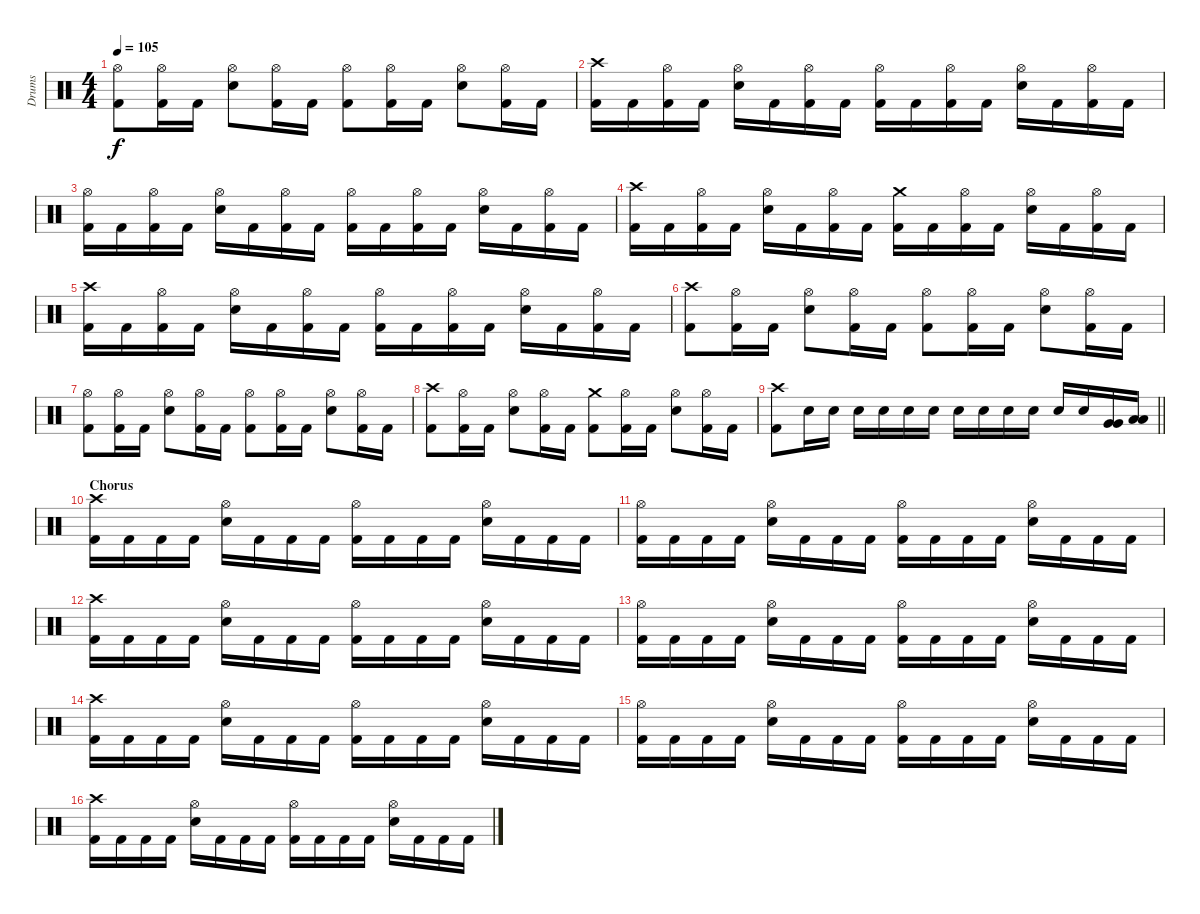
\track ("Drums" "Drums") {instrument percussion}
\staff {score}
\articulation defaults
\ts (4 4)
\tempo 105
\clef neutral
\ks c
("Hi-Hat (open)" "Kick (hit) 2").8{dy f} ("Hi-Hat (open)" "Kick (hit) 2").16 "Kick (hit) 2".16 ("Hi-Hat (open)" "Electric Snare (hit)").8 ("Hi-Hat (open)" "Kick (hit) 2").16 "Kick (hit) 2".16 ("Hi-Hat (open)" "Kick (hit) 2").8 ("Hi-Hat (open)" "Kick (hit) 2").16 "Kick (hit) 2".16 ("Hi-Hat (open)" "Electric Snare (hit)").8 ("Hi-Hat (open)" "Kick (hit) 2").16 "Kick (hit) 2".16 |
("Crash high (hit)" "Kick (hit) 2").16 "Kick (hit) 2".16 ("Hi-Hat (open)" "Kick (hit) 2").16 "Kick (hit) 2".16 ("Hi-Hat (open)" "Electric Snare (hit)").16 "Kick (hit) 2".16 ("Hi-Hat (open)" "Kick (hit) 2").16 "Kick (hit) 2".16 ("Hi-Hat (open)" "Kick (hit) 2").16 "Kick (hit) 2".16 ("Hi-Hat (open)" "Kick (hit) 2").16 "Kick (hit) 2".16 ("Hi-Hat (open)" "Electric Snare (hit)").16 "Kick (hit) 2".16 ("Hi-Hat (open)" "Kick (hit) 2").16 "Kick (hit) 2".16 |
("Hi-Hat (open)" "Kick (hit) 2").16 "Kick (hit) 2".16 ("Hi-Hat (open)" "Kick (hit) 2").16 "Kick (hit) 2".16 ("Hi-Hat (open)" "Electric Snare (hit)").16 "Kick (hit) 2".16 ("Hi-Hat (open)" "Kick (hit) 2").16 "Kick (hit) 2".16 ("Hi-Hat (open)" "Kick (hit) 2").16 "Kick (hit) 2".16 ("Hi-Hat (open)" "Kick (hit) 2").16 "Kick (hit) 2".16 ("Hi-Hat (open)" "Electric Snare (hit)").16 "Kick (hit) 2".16 ("Hi-Hat (open)" "Kick (hit) 2").16 "Kick (hit) 2".16 |
("Crash high (hit)" "Kick (hit) 2").16 "Kick (hit) 2".16 ("Hi-Hat (open)" "Kick (hit) 2").16 "Kick (hit) 2".16 ("Hi-Hat (open)" "Electric Snare (hit)").16 "Kick (hit) 2".16 ("Hi-Hat (open)" "Kick (hit) 2").16 "Kick (hit) 2".16 ("Crash medium (hit)" "Kick (hit) 2").16 "Kick (hit) 2".16 ("Hi-Hat (open)" "Kick (hit) 2").16 "Kick (hit) 2".16 ("Hi-Hat (open)" "Electric Snare (hit)").16 "Kick (hit) 2".16 ("Hi-Hat (open)" "Kick (hit) 2").16 "Kick (hit) 2".16 |
("Crash high (hit)" "Kick (hit) 2").16 "Kick (hit) 2".16 ("Hi-Hat (open)" "Kick (hit) 2").16 "Kick (hit) 2".16 ("Hi-Hat (open)" "Electric Snare (hit)").16 "Kick (hit) 2".16 ("Hi-Hat (open)" "Kick (hit) 2").16 "Kick (hit) 2".16 ("Hi-Hat (open)" "Kick (hit) 2").16 "Kick (hit) 2".16 ("Hi-Hat (open)" "Kick (hit) 2").16 "Kick (hit) 2".16 ("Hi-Hat (open)" "Electric Snare (hit)").16 "Kick (hit) 2".16 ("Hi-Hat (open)" "Kick (hit) 2").16 "Kick (hit) 2".16 |
("Crash high (hit)" "Kick (hit) 2").8 ("Hi-Hat (open)" "Kick (hit) 2").16 "Kick (hit) 2".16 ("Hi-Hat (open)" "Electric Snare (hit)").8 ("Hi-Hat (open)" "Kick (hit) 2").16 "Kick (hit) 2".16 ("Hi-Hat (open)" "Kick (hit) 2").8 ("Hi-Hat (open)" "Kick (hit) 2").16 "Kick (hit) 2".16 ("Hi-Hat (open)" "Electric Snare (hit)").8 ("Hi-Hat (open)" "Kick (hit) 2").16 "Kick (hit) 2".16 |
("Hi-Hat (open)" "Kick (hit) 2").8 ("Hi-Hat (open)" "Kick (hit) 2").16 "Kick (hit) 2".16 ("Hi-Hat (open)" "Electric Snare (hit)").8 ("Hi-Hat (open)" "Kick (hit) 2").16 "Kick (hit) 2".16 ("Hi-Hat (open)" "Kick (hit) 2").8 ("Hi-Hat (open)" "Kick (hit) 2").16 "Kick (hit) 2".16 ("Hi-Hat (open)" "Electric Snare (hit)").8 ("Hi-Hat (open)" "Kick (hit) 2").16 "Kick (hit) 2".16 |
("Crash high (hit)" "Kick (hit) 2").8 ("Hi-Hat (open)" "Kick (hit) 2").16 "Kick (hit) 2".16 ("Hi-Hat (open)" "Electric Snare (hit)").8 ("Hi-Hat (open)" "Kick (hit) 2").16 "Kick (hit) 2".16 ("Crash medium (hit)" "Kick (hit) 2").8 ("Hi-Hat (open)" "Kick (hit) 2").16 "Kick (hit) 2".16 ("Hi-Hat (open)" "Electric Snare (hit)").8 ("Hi-Hat (open)" "Kick (hit) 2").16 "Kick (hit) 2".16 |
\barLineRight lightlight
("Crash high (hit)" "Kick (hit) 2").8 "Electric Snare (hit)".16 "Electric Snare (hit)".16 "Electric Snare (hit)".16 "Electric Snare (hit)".16 "Electric Snare (hit)".16 "Electric Snare (hit)".16 "Electric Snare (hit)".16 "Electric Snare (hit)".16 "Electric Snare (hit)".16 "Electric Snare (hit)".16 "Electric Snare (hit)".16 "Electric Snare (hit)".16 ("Very Low Tom (hit)" "Very Low Tom (hit)").16 ("Low Floor Tom (hit)" "Low Floor Tom (hit)").16 |
\section ("" "Chorus")
("Crash high (hit)" "Kick (hit) 2").16 "Kick (hit) 2".16 "Kick (hit) 2".16 "Kick (hit) 2".16 ("Hi-Hat (open)" "Electric Snare (hit)").16 "Kick (hit) 2".16 "Kick (hit) 2".16 "Kick (hit) 2".16 ("Hi-Hat (open)" "Kick (hit) 2").16 "Kick (hit) 2".16 "Kick (hit) 2".16 "Kick (hit) 2".16 ("Hi-Hat (open)" "Electric Snare (hit)").16 "Kick (hit) 2".16 "Kick (hit) 2".16 "Kick (hit) 2".16 |
("Hi-Hat (open)" "Kick (hit) 2").16 "Kick (hit) 2".16 "Kick (hit) 2".16 "Kick (hit) 2".16 ("Hi-Hat (open)" "Electric Snare (hit)").16 "Kick (hit) 2".16 "Kick (hit) 2".16 "Kick (hit) 2".16 ("Hi-Hat (open)" "Kick (hit) 2").16 "Kick (hit) 2".16 "Kick (hit) 2".16 "Kick (hit) 2".16 ("Hi-Hat (open)" "Electric Snare (hit)").16 "Kick (hit) 2".16 "Kick (hit) 2".16 "Kick (hit) 2".16 |
("Crash high (hit)" "Kick (hit) 2").16 "Kick (hit) 2".16 "Kick (hit) 2".16 "Kick (hit) 2".16 ("Hi-Hat (open)" "Electric Snare (hit)").16 "Kick (hit) 2".16 "Kick (hit) 2".16 "Kick (hit) 2".16 ("Hi-Hat (open)" "Kick (hit) 2").16 "Kick (hit) 2".16 "Kick (hit) 2".16 "Kick (hit) 2".16 ("Hi-Hat (open)" "Electric Snare (hit)").16 "Kick (hit) 2".16 "Kick (hit) 2".16 "Kick (hit) 2".16 |
("Hi-Hat (open)" "Kick (hit) 2").16 "Kick (hit) 2".16 "Kick (hit) 2".16 "Kick (hit) 2".16 ("Hi-Hat (open)" "Electric Snare (hit)").16 "Kick (hit) 2".16 "Kick (hit) 2".16 "Kick (hit) 2".16 ("Hi-Hat (open)" "Kick (hit) 2").16 "Kick (hit) 2".16 "Kick (hit) 2".16 "Kick (hit) 2".16 ("Hi-Hat (open)" "Electric Snare (hit)").16 "Kick (hit) 2".16 "Kick (hit) 2".16 "Kick (hit) 2".16 |
("Crash high (hit)" "Kick (hit) 2").16 "Kick (hit) 2".16 "Kick (hit) 2".16 "Kick (hit) 2".16 ("Hi-Hat (open)" "Electric Snare (hit)").16 "Kick (hit) 2".16 "Kick (hit) 2".16 "Kick (hit) 2".16 ("Hi-Hat (open)" "Kick (hit) 2").16 "Kick (hit) 2".16 "Kick (hit) 2".16 "Kick (hit) 2".16 ("Hi-Hat (open)" "Electric Snare (hit)").16 "Kick (hit) 2".16 "Kick (hit) 2".16 "Kick (hit) 2".16 |
("Hi-Hat (open)" "Kick (hit) 2").16 "Kick (hit) 2".16 "Kick (hit) 2".16 "Kick (hit) 2".16 ("Hi-Hat (open)" "Electric Snare (hit)").16 "Kick (hit) 2".16 "Kick (hit) 2".16 "Kick (hit) 2".16 ("Hi-Hat (open)" "Kick (hit) 2").16 "Kick (hit) 2".16 "Kick (hit) 2".16 "Kick (hit) 2".16 ("Hi-Hat (open)" "Electric Snare (hit)").16 "Kick (hit) 2".16 "Kick (hit) 2".16 "Kick (hit) 2".16 |
("Crash high (hit)" "Kick (hit) 2").16 "Kick (hit) 2".16 "Kick (hit) 2".16 "Kick (hit) 2".16 ("Hi-Hat (open)" "Electric Snare (hit)").16 "Kick (hit) 2".16 "Kick (hit) 2".16 "Kick (hit) 2".16 ("Hi-Hat (open)" "Kick (hit) 2").16 "Kick (hit) 2".16 "Kick (hit) 2".16 "Kick (hit) 2".16 ("Hi-Hat (open)" "Electric Snare (hit)").16 "Kick (hit) 2".16 "Kick (hit) 2".16 "Kick (hit) 2".16
